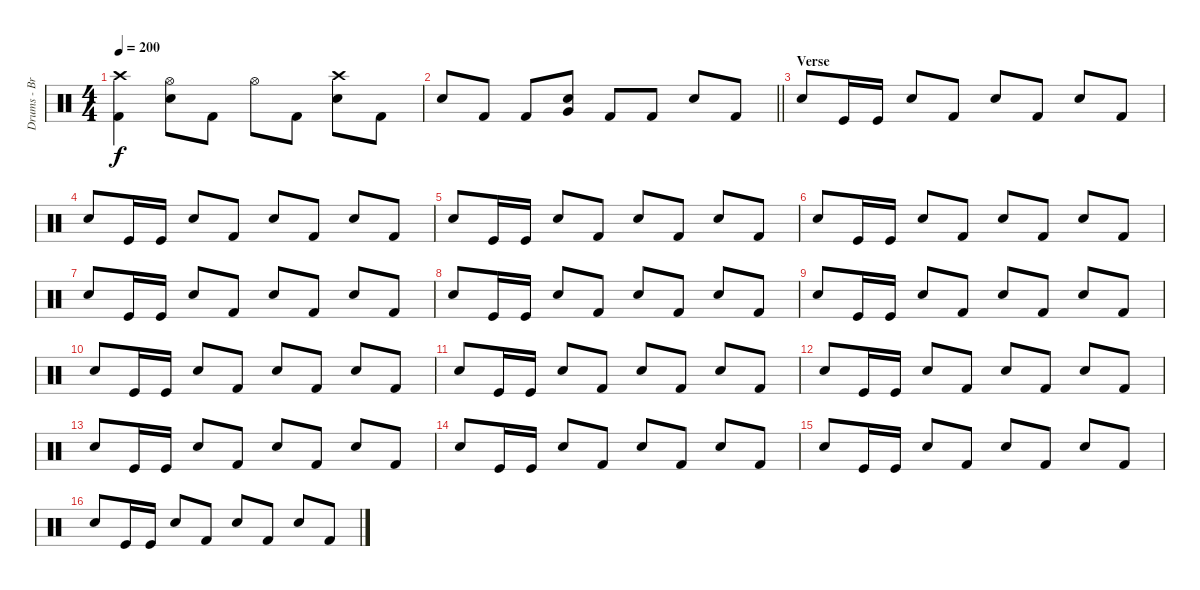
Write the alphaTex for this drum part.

\track ("Drums - Brandon Barnes" "Drums - Br") {instrument percussion}
\staff {score}
\articulation defaults
\ts (4 4)
\tempo 200
\clef neutral
\ks c
("Crash high (hit)" "Kick (hit) 2").4{dy f} ("Hi-Hat (open)" "Electric Snare (hit)").8 "Kick (hit) 2".8 "Hi-Hat (open)".8 "Kick (hit) 2".8 ("Crash high (hit)" "Electric Snare (hit)").8 "Kick (hit) 2".8 |
\barLineRight lightlight "Electric Snare (hit)".8 "Kick (hit) 2".8 "Kick (hit) 2".8
("Electric Snare (hit)" "Very Low Tom (hit)").8 "Kick (hit) 2".8 "Kick (hit) 2".8 "Electric Snare (hit)".8 "Kick (hit) 2".8 |
\section ("" "Verse")
"Snare (hit) 2".8 "Kick (hit)".16 "Kick (hit)".16 "Snare (hit) 2".8 "Kick (hit) 2".8 "Snare (hit) 2".8 "Kick (hit) 2".8 "Snare (hit) 2".8 "Kick (hit) 2".8 |
"Snare (hit) 2".8 "Kick (hit)".16 "Kick (hit)".16 "Snare (hit) 2".8 "Kick (hit) 2".8 "Snare (hit) 2".8 "Kick (hit) 2".8 "Snare (hit) 2".8 "Kick (hit) 2".8 |
"Snare (hit) 2".8 "Kick (hit)".16 "Kick (hit)".16 "Snare (hit) 2".8 "Kick (hit) 2".8 "Snare (hit) 2".8 "Kick (hit) 2".8 "Snare (hit) 2".8 "Kick (hit) 2".8 |
"Snare (hit) 2".8 "Kick (hit)".16 "Kick (hit)".16 "Snare (hit) 2".8 "Kick (hit) 2".8 "Snare (hit) 2".8 "Kick (hit) 2".8 "Snare (hit) 2".8 "Kick (hit) 2".8 |
"Snare (hit) 2".8 "Kick (hit)".16 "Kick (hit)".16 "Snare (hit) 2".8 "Kick (hit) 2".8 "Snare (hit) 2".8 "Kick (hit) 2".8 "Snare (hit) 2".8 "Kick (hit) 2".8 |
"Snare (hit) 2".8 "Kick (hit)".16 "Kick (hit)".16 "Snare (hit) 2".8 "Kick (hit) 2".8 "Snare (hit) 2".8 "Kick (hit) 2".8 "Snare (hit) 2".8 "Kick (hit) 2".8 |
"Snare (hit) 2".8 "Kick (hit)".16 "Kick (hit)".16 "Snare (hit) 2".8 "Kick (hit) 2".8 "Snare (hit) 2".8 "Kick (hit) 2".8 "Snare (hit) 2".8 "Kick (hit) 2".8 |
"Snare (hit) 2".8 "Kick (hit)".16 "Kick (hit)".16 "Snare (hit) 2".8 "Kick (hit) 2".8 "Snare (hit) 2".8 "Kick (hit) 2".8 "Snare (hit) 2".8 "Kick (hit) 2".8 |
"Snare (hit) 2".8 "Kick (hit)".16 "Kick (hit)".16 "Snare (hit) 2".8 "Kick (hit) 2".8 "Snare (hit) 2".8 "Kick (hit) 2".8 "Snare (hit) 2".8 "Kick (hit) 2".8 |
"Snare (hit) 2".8 "Kick (hit)".16 "Kick (hit)".16 "Snare (hit) 2".8 "Kick (hit) 2".8 "Snare (hit) 2".8 "Kick (hit) 2".8 "Snare (hit) 2".8 "Kick (hit) 2".8 |
"Snare (hit) 2".8 "Kick (hit)".16 "Kick (hit)".16 "Snare (hit) 2".8 "Kick (hit) 2".8 "Snare (hit) 2".8 "Kick (hit) 2".8 "Snare (hit) 2".8 "Kick (hit) 2".8 |
"Snare (hit) 2".8 "Kick (hit)".16 "Kick (hit)".16 "Snare (hit) 2".8 "Kick (hit) 2".8 "Snare (hit) 2".8 "Kick (hit) 2".8 "Snare (hit) 2".8 "Kick (hit) 2".8 |
"Snare (hit) 2".8 "Kick (hit)".16 "Kick (hit)".16 "Snare (hit) 2".8 "Kick (hit) 2".8 "Snare (hit) 2".8 "Kick (hit) 2".8 "Snare (hit) 2".8 "Kick (hit) 2".8 |
"Snare (hit) 2".8 "Kick (hit)".16 "Kick (hit)".16 "Snare (hit) 2".8 "Kick (hit) 2".8 "Snare (hit) 2".8 "Kick (hit) 2".8 "Snare (hit) 2".8 "Kick (hit) 2".8
